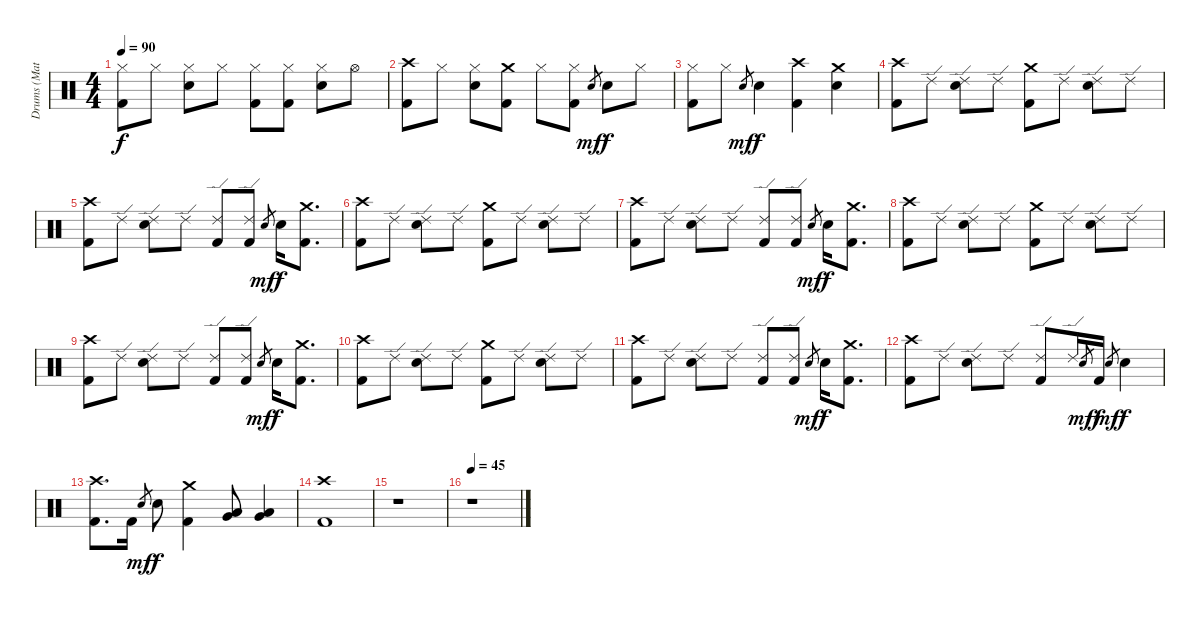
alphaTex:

\track ("Drums (Matt)" "Drums (Mat") {instrument percussion}
\staff {score}
\articulation defaults
\ts (4 4)
\tempo 90
\clef neutral
\ks c
("Hi-Hat (closed)" "Kick (hit) 2").8{dy f} "Hi-Hat (closed)".8 ("Hi-Hat (closed)" "Snare (hit) 2").8 "Hi-Hat (closed)".8 ("Hi-Hat (closed)" "Kick (hit) 2").8 ("Hi-Hat (closed)" "Kick (hit) 2").8 ("Hi-Hat (closed)" "Snare (hit) 2").8 "Hi-Hat (open)".8 |
("Crash high (hit)" "Kick (hit) 2").8 "Hi-Hat (closed)".8 ("Hi-Hat (closed)" "Snare (hit) 2").8 ("Crash medium (hit)" "Kick (hit) 2").8 "Hi-Hat (closed)".8 ("Hi-Hat (closed)" "Kick (hit) 2").8 "Snare (hit)".8{gr dy mf} "Snare (hit) 2".8{dy f} "Hi-Hat (closed)".8 |
("Hi-Hat (closed)" "Kick (hit) 2").8 "Hi-Hat (closed)".8 "Snare (hit)".8{gr dy mf} "Snare (hit) 2".4{dy f} ("Crash high (hit)" "Kick (hit) 2").4 ("Crash medium (hit)" "Snare (hit) 2").4 |
("Crash high (hit)" "Kick (hit) 2").8 "Ride (edge) 2".8 ("Ride (edge) 2" "Snare (hit) 2").8 "Ride (edge) 2".8 ("Crash medium (hit)" "Kick (hit) 2").8 "Ride (edge) 2".8 ("Ride (edge) 2" "Snare (hit) 2").8 "Ride (edge) 2".8 |
("Crash high (hit)" "Kick (hit) 2").8 "Ride (edge) 2".8 ("Ride (edge) 2" "Snare (hit) 2").8 "Ride (edge) 2".8 ("Ride (edge) 2" "Kick (hit) 2").8 ("Ride (edge) 2" "Kick (hit) 2").8 "Snare (hit)".8{gr dy mf} "Snare (hit) 2".16{dy f} ("Crash medium (hit)" "Kick (hit) 2").8{d} |
("Crash high (hit)" "Kick (hit) 2").8 "Ride (edge) 2".8 ("Ride (edge) 2" "Snare (hit) 2").8 "Ride (edge) 2".8 ("Crash medium (hit)" "Kick (hit) 2").8 "Ride (edge) 2".8 ("Ride (edge) 2" "Snare (hit) 2").8 "Ride (edge) 2".8 |
("Crash high (hit)" "Kick (hit) 2").8 "Ride (edge) 2".8 ("Ride (edge) 2" "Snare (hit) 2").8 "Ride (edge) 2".8 ("Ride (edge) 2" "Kick (hit) 2").8 ("Ride (edge) 2" "Kick (hit) 2").8 "Snare (hit)".8{gr dy mf} "Snare (hit) 2".16{dy f} ("Crash medium (hit)" "Kick (hit) 2").8{d} |
("Crash high (hit)" "Kick (hit) 2").8 "Ride (edge) 2".8 ("Ride (edge) 2" "Snare (hit) 2").8 "Ride (edge) 2".8 ("Crash medium (hit)" "Kick (hit) 2").8 "Ride (edge) 2".8 ("Ride (edge) 2" "Snare (hit) 2").8 "Ride (edge) 2".8 |
("Crash high (hit)" "Kick (hit) 2").8 "Ride (edge) 2".8 ("Ride (edge) 2" "Snare (hit) 2").8 "Ride (edge) 2".8 ("Ride (edge) 2" "Kick (hit) 2").8 ("Ride (edge) 2" "Kick (hit) 2").8 "Snare (hit)".8{gr dy mf} "Snare (hit) 2".16{dy f} ("Crash medium (hit)" "Kick (hit) 2").8{d} |
("Crash high (hit)" "Kick (hit) 2").8 "Ride (edge) 2".8 ("Ride (edge) 2" "Snare (hit) 2").8 "Ride (edge) 2".8 ("Crash medium (hit)" "Kick (hit) 2").8 "Ride (edge) 2".8 ("Ride (edge) 2" "Snare (hit) 2").8 "Ride (edge) 2".8 |
("Crash high (hit)" "Kick (hit) 2").8 "Ride (edge) 2".8 ("Ride (edge) 2" "Snare (hit) 2").8 "Ride (edge) 2".8 ("Ride (edge) 2" "Kick (hit) 2").8 ("Ride (edge) 2" "Kick (hit) 2").8 "Snare (hit)".8{gr dy mf} "Snare (hit) 2".16{dy f} ("Crash medium (hit)" "Kick (hit) 2").8{d} |
("Crash high (hit)" "Kick (hit) 2").8 "Ride (edge) 2".8 ("Ride (edge) 2" "Snare (hit) 2").8 "Ride (edge) 2".8 ("Ride (edge) 2" "Kick (hit) 2").8 "Ride (edge) 2".16 "Snare (hit)".8{gr dy mf} "Kick (hit) 2".16{dy f} "Snare (hit)".8{gr dy mf} "Snare (hit) 2".4{dy f} |
("Crash high (hit)" "Kick (hit) 2").8{d} "Kick (hit) 2".16 "Snare (hit)".8{gr dy mf} "Snare (hit) 2".8{dy f} ("Crash medium (hit)" "Kick (hit) 2").4 ("Low Tom (hit)" "Very Low Tom (hit)").8 ("Low Tom (hit)" "Very Low Tom (hit)").4 |
("Crash high (hit)" "Kick (hit) 2").1 |
r.1 |
\tempo 45
r.1
